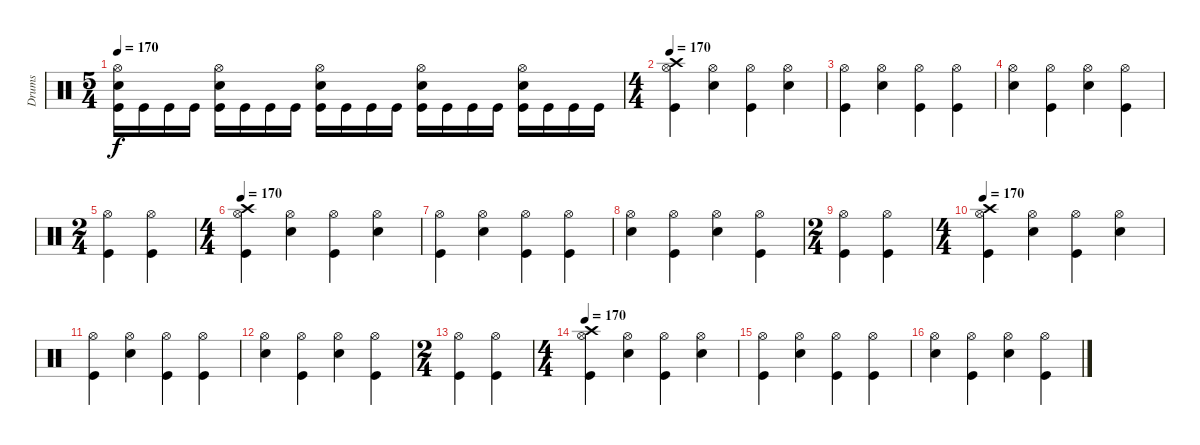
\track ("Drums" "Drums") {instrument percussion}
\staff {score}
\articulation defaults
\ts (5 4)
\tempo 170
\clef neutral
\ks c
("Kick (hit)" "Snare (hit) 2" "Hi-Hat (open)").16{dy f} "Kick (hit)".16 "Kick (hit)".16 "Kick (hit)".16 ("Kick (hit)" "Snare (hit) 2" "Hi-Hat (open)").16 "Kick (hit)".16 "Kick (hit)".16 "Kick (hit)".16 ("Kick (hit)" "Snare (hit) 2" "Hi-Hat (open)").16 "Kick (hit)".16 "Kick (hit)".16 "Kick (hit)".16 ("Kick (hit)" "Snare (hit) 2" "Hi-Hat (open)").16 "Kick (hit)".16 "Kick (hit)".16 "Kick (hit)".16 ("Kick (hit)" "Snare (hit) 2" "Hi-Hat (open)").16 "Kick (hit)".16 "Kick (hit)".16 "Kick (hit)".16 |
\ts (4 4)
\tempo 170
("Kick (hit)" "Hi-Hat (open)" "Crash high (hit)").4 ("Snare (hit) 2" "Hi-Hat (open)").4 ("Kick (hit)" "Hi-Hat (open)").4 ("Snare (hit) 2" "Hi-Hat (open)").4 |
("Kick (hit)" "Hi-Hat (open)").4 ("Snare (hit) 2" "Hi-Hat (open)").4 ("Kick (hit)" "Hi-Hat (open)").4 ("Kick (hit)" "Hi-Hat (open)").4 |
("Snare (hit) 2" "Hi-Hat (open)").4 ("Kick (hit)" "Hi-Hat (open)").4 ("Snare (hit) 2" "Hi-Hat (open)").4 ("Kick (hit)" "Hi-Hat (open)").4 |
\ts (2 4)
("Kick (hit)" "Hi-Hat (open)").4 ("Kick (hit)" "Hi-Hat (open)").4 |
\ts (4 4)
\tempo 170
("Kick (hit)" "Hi-Hat (open)" "Crash high (hit)").4 ("Snare (hit) 2" "Hi-Hat (open)").4 ("Kick (hit)" "Hi-Hat (open)").4 ("Snare (hit) 2" "Hi-Hat (open)").4 |
("Kick (hit)" "Hi-Hat (open)").4 ("Snare (hit) 2" "Hi-Hat (open)").4 ("Kick (hit)" "Hi-Hat (open)").4 ("Kick (hit)" "Hi-Hat (open)").4 |
("Snare (hit) 2" "Hi-Hat (open)").4 ("Kick (hit)" "Hi-Hat (open)").4 ("Snare (hit) 2" "Hi-Hat (open)").4 ("Kick (hit)" "Hi-Hat (open)").4 |
\ts (2 4)
("Kick (hit)" "Hi-Hat (open)").4 ("Kick (hit)" "Hi-Hat (open)").4 |
\ts (4 4)
\tempo 170
("Kick (hit)" "Hi-Hat (open)" "Crash high (hit)").4 ("Snare (hit) 2" "Hi-Hat (open)").4 ("Kick (hit)" "Hi-Hat (open)").4 ("Snare (hit) 2" "Hi-Hat (open)").4 |
("Kick (hit)" "Hi-Hat (open)").4 ("Snare (hit) 2" "Hi-Hat (open)").4 ("Kick (hit)" "Hi-Hat (open)").4 ("Kick (hit)" "Hi-Hat (open)").4 |
("Snare (hit) 2" "Hi-Hat (open)").4 ("Kick (hit)" "Hi-Hat (open)").4 ("Snare (hit) 2" "Hi-Hat (open)").4 ("Kick (hit)" "Hi-Hat (open)").4 |
\ts (2 4)
("Kick (hit)" "Hi-Hat (open)").4 ("Kick (hit)" "Hi-Hat (open)").4 |
\ts (4 4)
\tempo 170
("Kick (hit)" "Hi-Hat (open)" "Crash high (hit)").4 ("Snare (hit) 2" "Hi-Hat (open)").4 ("Kick (hit)" "Hi-Hat (open)").4 ("Snare (hit) 2" "Hi-Hat (open)").4 |
("Kick (hit)" "Hi-Hat (open)").4 ("Snare (hit) 2" "Hi-Hat (open)").4 ("Kick (hit)" "Hi-Hat (open)").4 ("Kick (hit)" "Hi-Hat (open)").4 |
("Snare (hit) 2" "Hi-Hat (open)").4 ("Kick (hit)" "Hi-Hat (open)").4 ("Snare (hit) 2" "Hi-Hat (open)").4 ("Kick (hit)" "Hi-Hat (open)").4
